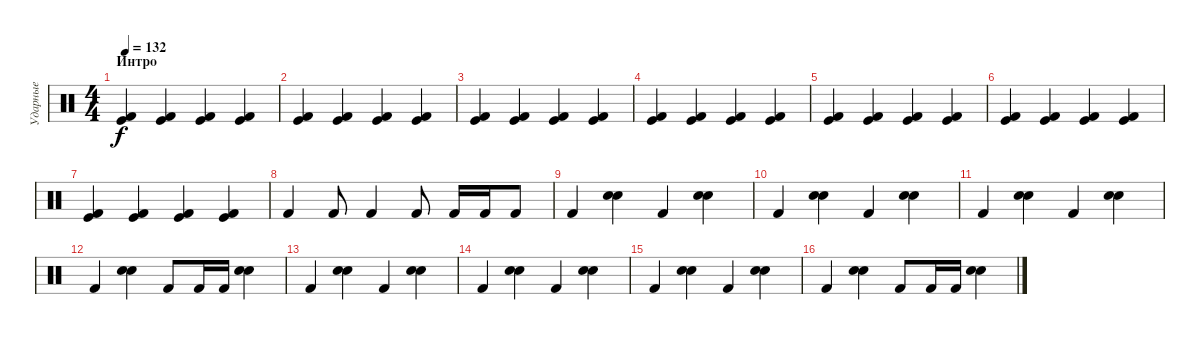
\track ("Ударные" "Ударные") {instrument percussion}
\staff {score}
\articulation defaults
\ts (4 4)
\section ("" "Интро")
\tempo 132
\clef neutral
\ks c
("Kick (hit)" "Kick (hit) 2").4{dy f} ("Kick (hit)" "Kick (hit) 2").4 ("Kick (hit)" "Kick (hit) 2").4 ("Kick (hit)" "Kick (hit) 2").4 |
("Kick (hit)" "Kick (hit) 2").4 ("Kick (hit)" "Kick (hit) 2").4 ("Kick (hit)" "Kick (hit) 2").4 ("Kick (hit)" "Kick (hit) 2").4 |
("Kick (hit)" "Kick (hit) 2").4 ("Kick (hit)" "Kick (hit) 2").4 ("Kick (hit)" "Kick (hit) 2").4 ("Kick (hit)" "Kick (hit) 2").4 |
("Kick (hit)" "Kick (hit) 2").4 ("Kick (hit)" "Kick (hit) 2").4 ("Kick (hit)" "Kick (hit) 2").4 ("Kick (hit)" "Kick (hit) 2").4 |
("Kick (hit)" "Kick (hit) 2").4 ("Kick (hit)" "Kick (hit) 2").4 ("Kick (hit)" "Kick (hit) 2").4 ("Kick (hit)" "Kick (hit) 2").4 |
("Kick (hit)" "Kick (hit) 2").4 ("Kick (hit)" "Kick (hit) 2").4 ("Kick (hit)" "Kick (hit) 2").4 ("Kick (hit)" "Kick (hit) 2").4 |
("Kick (hit)" "Kick (hit) 2").4 ("Kick (hit)" "Kick (hit) 2").4 ("Kick (hit)" "Kick (hit) 2").4 ("Kick (hit)" "Kick (hit) 2").4 |
"Kick (hit) 2".4 "Kick (hit) 2".8 "Kick (hit) 2".4 "Kick (hit) 2".8 "Kick (hit) 2".16 "Kick (hit) 2".16 "Kick (hit) 2".8 |
"Kick (hit) 2".4 ("Electric Snare (hit)" "Snare (hit) 2").4 "Kick (hit) 2".4 ("Electric Snare (hit)" "Snare (hit) 2").4 |
"Kick (hit) 2".4 ("Electric Snare (hit)" "Snare (hit) 2").4 "Kick (hit) 2".4 ("Electric Snare (hit)" "Snare (hit) 2").4 |
"Kick (hit) 2".4 ("Electric Snare (hit)" "Snare (hit) 2").4 "Kick (hit) 2".4 ("Electric Snare (hit)" "Snare (hit) 2").4 |
"Kick (hit) 2".4 ("Electric Snare (hit)" "Snare (hit) 2").4 "Kick (hit) 2".8 "Kick (hit) 2".16 "Kick (hit) 2".16 ("Electric Snare (hit)" "Snare (hit) 2").4 |
"Kick (hit) 2".4 ("Electric Snare (hit)" "Snare (hit) 2").4 "Kick (hit) 2".4 ("Electric Snare (hit)" "Snare (hit) 2").4 |
"Kick (hit) 2".4 ("Electric Snare (hit)" "Snare (hit) 2").4 "Kick (hit) 2".4 ("Electric Snare (hit)" "Snare (hit) 2").4 |
"Kick (hit) 2".4 ("Electric Snare (hit)" "Snare (hit) 2").4 "Kick (hit) 2".4 ("Electric Snare (hit)" "Snare (hit) 2").4 |
"Kick (hit) 2".4 ("Electric Snare (hit)" "Snare (hit) 2").4 "Kick (hit) 2".8 "Kick (hit) 2".16 "Kick (hit) 2".16 ("Electric Snare (hit)" "Snare (hit) 2").4
